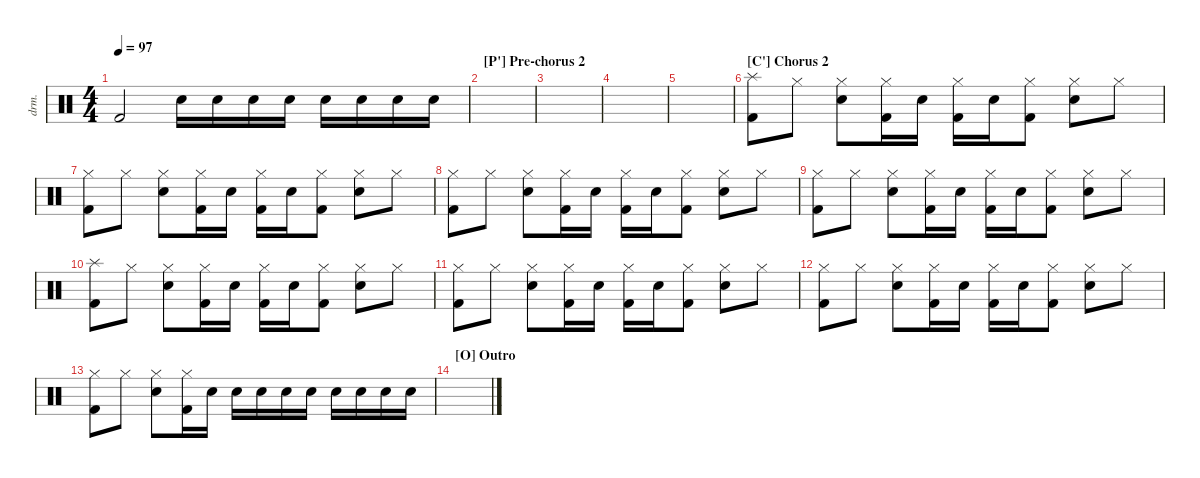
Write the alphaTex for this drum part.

\defaultSystemsLayout 4
\hideDynamics
\bracketExtendMode nobrackets
\track ("Drumkit" "drm.") {instrument percussion}
\staff {score}
\articulation defaults
\ts (4 4)
\tempo 97
\clef neutral
\ks c "Kick (hit) 2".2{dy mf beam Up} "Snare (hit) 2".16{beam Down} "Snare (hit) 2".16{beam Down} "Snare (hit) 2".16{beam Down} "Snare (hit) 2".16{beam Down} "Snare (hit) 2".16{beam Down} "Snare (hit) 2".16{beam Down} "Snare (hit) 2".16{beam Down} "Snare (hit) 2".16{beam Down}
|
\section ("P'" "Pre-chorus 2")
|
|
|
|
\section ("C'" "Сhorus 2")
("Splash (hit)" "Kick (hit) 2").8{beam Down} "Hi-Hat (closed)".8{beam Down} ("Hi-Hat (closed)" "Snare (hit) 2").8{beam Down} ("Hi-Hat (closed)" "Kick (hit) 2").16{beam Down} "Snare (hit) 2".16{beam Down} ("Hi-Hat (closed)" "Kick (hit) 2").16{beam Down} "Snare (hit) 2".16{beam Down} ("Kick (hit) 2" "Hi-Hat (closed)").8{beam Down} ("Snare (hit) 2" "Hi-Hat (closed)").8{beam Down} "Hi-Hat (closed)".8{beam Down} |
("Kick (hit) 2" "Hi-Hat (closed)").8{beam Down} "Hi-Hat (closed)".8{beam Down} ("Hi-Hat (closed)" "Snare (hit) 2").8{beam Down} ("Hi-Hat (closed)" "Kick (hit) 2").16{beam Down} "Snare (hit) 2".16{beam Down} ("Hi-Hat (closed)" "Kick (hit) 2").16{beam Down} "Snare (hit) 2".16{beam Down} ("Kick (hit) 2" "Hi-Hat (closed)").8{beam Down} ("Snare (hit) 2" "Hi-Hat (closed)").8{beam Down} "Hi-Hat (closed)".8{beam Down} |
("Kick (hit) 2" "Hi-Hat (closed)").8{beam Down} "Hi-Hat (closed)".8{beam Down} ("Hi-Hat (closed)" "Snare (hit) 2").8{beam Down} ("Hi-Hat (closed)" "Kick (hit) 2").16{beam Down} "Snare (hit) 2".16{beam Down} ("Hi-Hat (closed)" "Kick (hit) 2").16{beam Down} "Snare (hit) 2".16{beam Down} ("Kick (hit) 2" "Hi-Hat (closed)").8{beam Down} ("Snare (hit) 2" "Hi-Hat (closed)").8{beam Down} "Hi-Hat (closed)".8{beam Down} |
("Kick (hit) 2" "Hi-Hat (closed)").8{beam Down} "Hi-Hat (closed)".8{beam Down} ("Hi-Hat (closed)" "Snare (hit) 2").8{beam Down} ("Hi-Hat (closed)" "Kick (hit) 2").16{beam Down} "Snare (hit) 2".16{beam Down} ("Hi-Hat (closed)" "Kick (hit) 2").16{beam Down} "Snare (hit) 2".16{beam Down} ("Kick (hit) 2" "Hi-Hat (closed)").8{beam Down} ("Snare (hit) 2" "Hi-Hat (closed)").8{beam Down} "Hi-Hat (closed)".8{beam Down} |
("Splash (hit)" "Kick (hit) 2").8{beam Down} "Hi-Hat (closed)".8{beam Down} ("Hi-Hat (closed)" "Snare (hit) 2").8{beam Down} ("Hi-Hat (closed)" "Kick (hit) 2").16{beam Down} "Snare (hit) 2".16{beam Down} ("Hi-Hat (closed)" "Kick (hit) 2").16{beam Down} "Snare (hit) 2".16{beam Down} ("Kick (hit) 2" "Hi-Hat (closed)").8{beam Down} ("Snare (hit) 2" "Hi-Hat (closed)").8{beam Down} "Hi-Hat (closed)".8{beam Down} |
("Kick (hit) 2" "Hi-Hat (closed)").8{beam Down} "Hi-Hat (closed)".8{beam Down} ("Hi-Hat (closed)" "Snare (hit) 2").8{beam Down} ("Hi-Hat (closed)" "Kick (hit) 2").16{beam Down} "Snare (hit) 2".16{beam Down} ("Hi-Hat (closed)" "Kick (hit) 2").16{beam Down} "Snare (hit) 2".16{beam Down} ("Kick (hit) 2" "Hi-Hat (closed)").8{beam Down} ("Snare (hit) 2" "Hi-Hat (closed)").8{beam Down} "Hi-Hat (closed)".8{beam Down} |
("Kick (hit) 2" "Hi-Hat (closed)").8{beam Down} "Hi-Hat (closed)".8{beam Down} ("Hi-Hat (closed)" "Snare (hit) 2").8{beam Down} ("Hi-Hat (closed)" "Kick (hit) 2").16{beam Down} "Snare (hit) 2".16{beam Down} ("Hi-Hat (closed)" "Kick (hit) 2").16{beam Down} "Snare (hit) 2".16{beam Down} ("Kick (hit) 2" "Hi-Hat (closed)").8{beam Down} ("Snare (hit) 2" "Hi-Hat (closed)").8{beam Down} "Hi-Hat (closed)".8{beam Down} |
("Kick (hit) 2" "Hi-Hat (closed)").8{beam Down} "Hi-Hat (closed)".8{beam Down} ("Hi-Hat (closed)" "Snare (hit) 2").8{beam Down} ("Hi-Hat (closed)" "Kick (hit) 2").16{beam Down} "Snare (hit) 2".16{beam Down} "Snare (hit) 2".16{beam Down} "Snare (hit) 2".16{beam Down} "Snare (hit) 2".16{beam Down} "Snare (hit) 2".16{beam Down} "Snare (hit) 2".16{beam Down} "Snare (hit) 2".16{beam Down} "Snare (hit) 2".16{beam Down} "Snare (hit) 2".16{beam Down} |
\section ("O" "Outro")
